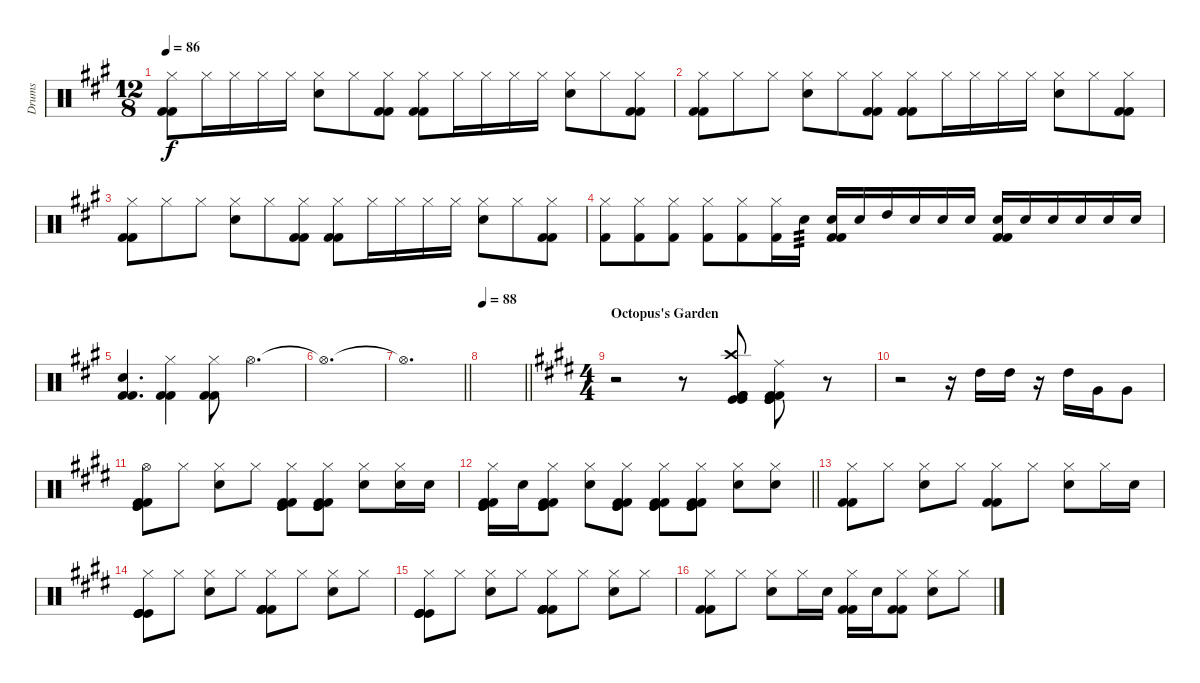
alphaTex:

\track ("Drums" "Drums") {instrument percussion}
\staff {score}
\articulation defaults
\ts (12 8)
\tempo 86
\clef neutral
\ks a
("Hi-Hat (closed)" "Kick (hit) 2" "Kick (hit) 2").8{dy f} "Hi-Hat (closed)".16 "Hi-Hat (closed)".16 "Hi-Hat (closed)".16 "Hi-Hat (closed)".16 ("Hi-Hat (closed)" "Snare (hit) 2").8 "Hi-Hat (closed)".8 ("Hi-Hat (closed)" "Kick (hit) 2" "Kick (hit) 2").8 ("Hi-Hat (closed)" "Kick (hit) 2" "Kick (hit) 2").8 "Hi-Hat (closed)".16 "Hi-Hat (closed)".16 "Hi-Hat (closed)".16 "Hi-Hat (closed)".16 ("Hi-Hat (closed)" "Snare (hit) 2").8 "Hi-Hat (closed)".8 ("Hi-Hat (closed)" "Kick (hit) 2" "Kick (hit) 2").8 |
("Hi-Hat (closed)" "Kick (hit) 2" "Kick (hit) 2").8 "Hi-Hat (closed)".8 "Hi-Hat (closed)".8 ("Hi-Hat (closed)" "Snare (hit) 2").8 "Hi-Hat (closed)".8 ("Hi-Hat (closed)" "Kick (hit) 2" "Kick (hit) 2").8 ("Hi-Hat (closed)" "Kick (hit) 2" "Kick (hit) 2").8 "Hi-Hat (closed)".16 "Hi-Hat (closed)".16 "Hi-Hat (closed)".16 "Hi-Hat (closed)".16 ("Hi-Hat (closed)" "Snare (hit) 2").8 "Hi-Hat (closed)".8 ("Hi-Hat (closed)" "Kick (hit) 2" "Kick (hit) 2").8 |
("Hi-Hat (closed)" "Kick (hit) 2" "Kick (hit) 2").8 "Hi-Hat (closed)".8 "Hi-Hat (closed)".8 ("Hi-Hat (closed)" "Snare (hit) 2").8 "Hi-Hat (closed)".8 ("Hi-Hat (closed)" "Kick (hit) 2" "Kick (hit) 2").8 ("Hi-Hat (closed)" "Kick (hit) 2" "Kick (hit) 2").8 "Hi-Hat (closed)".16 "Hi-Hat (closed)".16 "Hi-Hat (closed)".16 "Hi-Hat (closed)".16 ("Hi-Hat (closed)" "Snare (hit) 2").8 "Hi-Hat (closed)".8 ("Hi-Hat (closed)" "Kick (hit) 2" "Kick (hit) 2").8 |
("Hi-Hat (closed)" "Kick (hit) 2").8 ("Hi-Hat (closed)" "Kick (hit) 2").8 ("Hi-Hat (closed)" "Kick (hit) 2").8 ("Hi-Hat (closed)" "Kick (hit) 2").8 ("Hi-Hat (closed)" "Kick (hit) 2").8 ("Hi-Hat (closed)" "Kick (hit) 2").16 "Snare (hit) 2".16{tp 3} ("Snare (hit) 2" "Kick (hit) 2" "Kick (hit) 2").16 "Snare (hit) 2".16 "High Tom (hit)".16 "Snare (hit) 2".16 "Snare (hit) 2".16 "Snare (hit) 2".16 ("Snare (hit) 2" "Kick (hit) 2" "Kick (hit) 2").16 "Snare (hit) 2".16 "Snare (hit) 2".16 "Snare (hit) 2".16 "Snare (hit) 2".16 "Snare (hit) 2".16 |
("Snare (hit) 2" "Kick (hit) 2" "Kick (hit) 2").4{d} ("Hi-Hat (closed)" "Kick (hit) 2" "Kick (hit) 2").4 ("Hi-Hat (closed)" "Kick (hit) 2" "Kick (hit) 2").8 "Hi-Hat (open)".2{d} |
"Hi-Hat (open)"{t}.1{d} |
\barLineRight lightlight "Hi-Hat (open)"{t}.1{d}
|
\tempo 88
\barLineRight lightlight
|
\ts (4 4)
\section ("" "Octopus's Garden")
\ks e
r.2 r.8 ("Crash high (hit)" "Kick (hit) 2" "Kick (hit) 2" "Kick (hit) 2" "Kick (hit)" "Kick (hit)").8 ("Ride (middle)" "Kick (hit)" "Kick (hit) 2" "Kick (hit) 2" "Kick (hit)" "Kick (hit)").8 r.8 |
r.2 r.16 "High Tom (hit)".16 "High Tom (hit)".16 r.16 "High Tom (hit)".16 "Very Low Tom (hit)".16 "Very Low Tom (hit)".8 |
("Hi-Hat (open)" "Kick (hit) 2" "Kick (hit) 2" "Kick (hit)" "Kick (hit)").8 "Hi-Hat (closed)".8 ("Hi-Hat (closed)" "Snare (hit) 2").8 "Hi-Hat (closed)".8 ("Hi-Hat (closed)" "Kick (hit) 2" "Kick (hit) 2" "Kick (hit)" "Kick (hit)").8 ("Hi-Hat (closed)" "Kick (hit) 2" "Kick (hit) 2" "Kick (hit)" "Kick (hit)").8 ("Hi-Hat (closed)" "Snare (hit) 2").8 ("Hi-Hat (closed)" "Snare (hit) 2").16 "Snare (hit) 2".16 |
\barLineRight lightlight
("Hi-Hat (closed)" "Kick (hit) 2" "Kick (hit) 2" "Kick (hit)" "Kick (hit)").16 "Snare (hit) 2".16 ("Hi-Hat (closed)" "Kick (hit) 2" "Kick (hit) 2" "Kick (hit)" "Kick (hit)").8 ("Hi-Hat (closed)" "Snare (hit) 2").8 ("Hi-Hat (closed)" "Kick (hit) 2" "Kick (hit) 2" "Kick (hit)" "Kick (hit)").8 ("Hi-Hat (closed)" "Kick (hit) 2" "Kick (hit) 2" "Kick (hit)" "Kick (hit)").8 ("Hi-Hat (closed)" "Kick (hit) 2" "Kick (hit) 2" "Kick (hit)" "Kick (hit)").8 ("Hi-Hat (closed)" "Snare (hit) 2").8 ("Hi-Hat (closed)" "Snare (hit) 2").8 |
("Hi-Hat (closed)" "Kick (hit) 2" "Kick (hit) 2").8 "Hi-Hat (closed)".8 ("Hi-Hat (closed)" "Snare (hit) 2").8 "Hi-Hat (closed)".8 ("Hi-Hat (closed)" "Kick (hit) 2" "Kick (hit) 2").8 "Hi-Hat (closed)".8 ("Hi-Hat (closed)" "Snare (hit) 2").8 "Hi-Hat (closed)".16 "Snare (hit) 2".16 |
("Hi-Hat (closed)" "Kick (hit)" "Kick (hit)" "Kick (hit)" "Kick (hit)").8 "Hi-Hat (closed)".8 ("Hi-Hat (closed)" "Snare (hit) 2").8 "Hi-Hat (closed)".8 ("Hi-Hat (closed)" "Kick (hit) 2" "Kick (hit) 2" "Kick (hit) 2" "Kick (hit) 2").8 "Hi-Hat (closed)".8 ("Hi-Hat (closed)" "Snare (hit) 2").8 "Hi-Hat (closed)".8 |
("Hi-Hat (closed)" "Kick (hit)" "Kick (hit)" "Kick (hit)" "Kick (hit)").8 "Hi-Hat (closed)".8 ("Hi-Hat (closed)" "Snare (hit) 2").8 "Hi-Hat (closed)".8 ("Hi-Hat (closed)" "Kick (hit) 2" "Kick (hit) 2" "Kick (hit) 2" "Kick (hit) 2").8 "Hi-Hat (closed)".8 ("Hi-Hat (closed)" "Snare (hit) 2").8 "Hi-Hat (closed)".8 |
("Hi-Hat (closed)" "Kick (hit) 2" "Kick (hit) 2").8 "Hi-Hat (closed)".8 ("Hi-Hat (closed)" "Snare (hit) 2").8 "Hi-Hat (closed)".16 "Snare (hit) 2".16 ("Hi-Hat (closed)" "Kick (hit) 2" "Kick (hit) 2").16 "Snare (hit) 2".16 ("Hi-Hat (closed)" "Kick (hit) 2" "Kick (hit) 2").8 ("Hi-Hat (closed)" "Snare (hit) 2").8 "Hi-Hat (closed)".8
